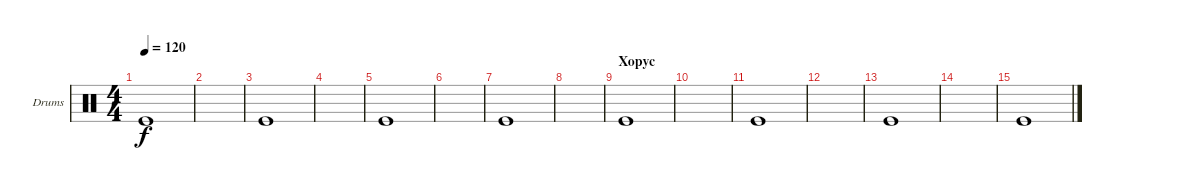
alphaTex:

\defaultSystemsLayout 4
\bracketExtendMode groupsimilarinstruments
\firstSystemTrackNameOrientation horizontal
\otherSystemsTrackNameOrientation horizontal
\track ("Drum" "Drums") {instrument percussion}
\staff {score}
\articulation defaults
\ts (4 4)
\tempo 120
\clef neutral
\ks c "Kick (hit)".1{dy f}
|
|
"Kick (hit)".1 |
|
"Kick (hit)".1 |
|
"Kick (hit)".1 |
|
\section ("" "Хорус")
"Kick (hit)".1 |
|
"Kick (hit)".1 |
|
"Kick (hit)".1 |
|
"Kick (hit)".1
